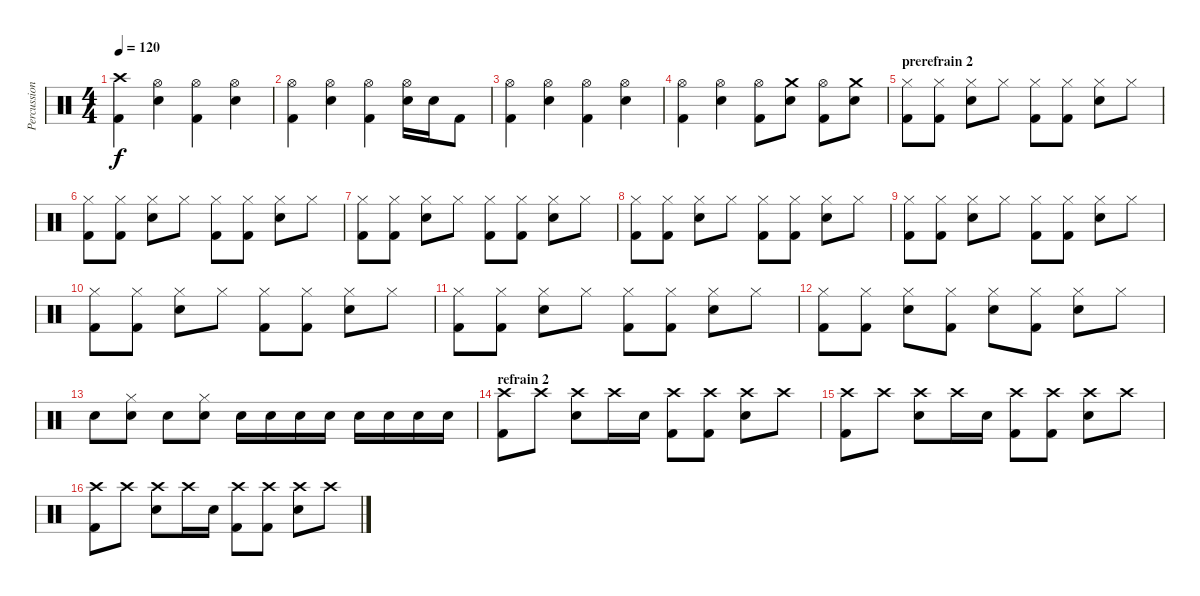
\track ("Percussions" "Percussion") {instrument percussion}
\staff {score}
\articulation defaults
\ts (4 4)
\tempo 120
\clef neutral
\ks c
("Crash high (hit)" "Kick (hit) 2").4{dy f} ("Hi-Hat (open)" "Snare (hit) 2").4 ("Hi-Hat (open)" "Kick (hit) 2").4 ("Hi-Hat (open)" "Snare (hit) 2").4 |
("Hi-Hat (open)" "Kick (hit) 2").4 ("Hi-Hat (open)" "Snare (hit) 2").4 ("Hi-Hat (open)" "Kick (hit) 2").4 ("Hi-Hat (open)" "Snare (hit) 2").16 "Snare (hit) 2".16 "Kick (hit) 2".8 |
("Hi-Hat (open)" "Kick (hit) 2").4 ("Hi-Hat (open)" "Snare (hit) 2").4 ("Hi-Hat (open)" "Kick (hit) 2").4 ("Hi-Hat (open)" "Snare (hit) 2").4 |
("Hi-Hat (open)" "Kick (hit) 2").4 ("Hi-Hat (open)" "Snare (hit) 2").4 ("Hi-Hat (open)" "Kick (hit) 2").8 ("Crash medium (hit)" "Snare (hit) 2").8 ("Hi-Hat (open)" "Kick (hit) 2").8 ("Crash medium (hit)" "Snare (hit) 2").8 |
\section ("" "prerefrain 2")
("Hi-Hat (closed)" "Kick (hit) 2").8 ("Hi-Hat (closed)" "Kick (hit) 2").8 ("Hi-Hat (closed)" "Snare (hit) 2").8 "Hi-Hat (closed)".8 ("Hi-Hat (closed)" "Kick (hit) 2").8 ("Hi-Hat (closed)" "Kick (hit) 2").8 ("Hi-Hat (closed)" "Snare (hit) 2").8 "Hi-Hat (closed)".8 |
("Hi-Hat (closed)" "Kick (hit) 2").8 ("Hi-Hat (closed)" "Kick (hit) 2").8 ("Hi-Hat (closed)" "Snare (hit) 2").8 "Hi-Hat (closed)".8 ("Hi-Hat (closed)" "Kick (hit) 2").8 ("Hi-Hat (closed)" "Kick (hit) 2").8 ("Hi-Hat (closed)" "Snare (hit) 2").8 "Hi-Hat (closed)".8 |
("Hi-Hat (closed)" "Kick (hit) 2").8 ("Hi-Hat (closed)" "Kick (hit) 2").8 ("Hi-Hat (closed)" "Snare (hit) 2").8 "Hi-Hat (closed)".8 ("Hi-Hat (closed)" "Kick (hit) 2").8 ("Hi-Hat (closed)" "Kick (hit) 2").8 ("Hi-Hat (closed)" "Snare (hit) 2").8 "Hi-Hat (closed)".8 |
("Hi-Hat (closed)" "Kick (hit) 2").8 ("Hi-Hat (closed)" "Kick (hit) 2").8 ("Hi-Hat (closed)" "Snare (hit) 2").8 "Hi-Hat (closed)".8 ("Hi-Hat (closed)" "Kick (hit) 2").8 ("Hi-Hat (closed)" "Kick (hit) 2").8 ("Hi-Hat (closed)" "Snare (hit) 2").8 "Hi-Hat (closed)".8 |
("Hi-Hat (closed)" "Kick (hit) 2").8 ("Hi-Hat (closed)" "Kick (hit) 2").8 ("Hi-Hat (closed)" "Snare (hit) 2").8 "Hi-Hat (closed)".8 ("Hi-Hat (closed)" "Kick (hit) 2").8 ("Hi-Hat (closed)" "Kick (hit) 2").8 ("Hi-Hat (closed)" "Snare (hit) 2").8 "Hi-Hat (closed)".8 |
("Hi-Hat (closed)" "Kick (hit) 2").8 ("Hi-Hat (closed)" "Kick (hit) 2").8 ("Hi-Hat (closed)" "Snare (hit) 2").8 "Hi-Hat (closed)".8 ("Hi-Hat (closed)" "Kick (hit) 2").8 ("Hi-Hat (closed)" "Kick (hit) 2").8 ("Hi-Hat (closed)" "Snare (hit) 2").8 "Hi-Hat (closed)".8 |
("Hi-Hat (closed)" "Kick (hit) 2").8 ("Hi-Hat (closed)" "Kick (hit) 2").8 ("Hi-Hat (closed)" "Snare (hit) 2").8 "Hi-Hat (closed)".8 ("Hi-Hat (closed)" "Kick (hit) 2").8 ("Hi-Hat (closed)" "Kick (hit) 2").8 ("Hi-Hat (closed)" "Snare (hit) 2").8 "Hi-Hat (closed)".8 |
("Hi-Hat (closed)" "Kick (hit) 2").8 ("Hi-Hat (closed)" "Kick (hit) 2").8 ("Hi-Hat (closed)" "Snare (hit) 2").8 ("Hi-Hat (closed)" "Kick (hit) 2").8 ("Hi-Hat (closed)" "Snare (hit) 2").8 ("Hi-Hat (closed)" "Kick (hit) 2").8 ("Hi-Hat (closed)" "Snare (hit) 2").8 "Hi-Hat (closed)".8 |
"Snare (hit) 2".8 ("Hi-Hat (closed)" "Snare (hit) 2").8 "Snare (hit) 2".8 ("Hi-Hat (closed)" "Snare (hit) 2").8 "Snare (hit) 2".16 "Snare (hit) 2".16 "Snare (hit) 2".16 "Snare (hit) 2".16 "Snare (hit) 2".16 "Snare (hit) 2".16 "Snare (hit) 2".16 "Snare (hit) 2".16 |
\section ("" "refrain 2")
("Crash high (hit)" "Kick (hit) 2").8 "Crash high (hit)".8 ("Crash high (hit)" "Snare (hit) 2").8 "Crash high (hit)".16 "Snare (hit) 2".16 ("Crash high (hit)" "Kick (hit) 2").8 ("Crash high (hit)" "Kick (hit) 2").8 ("Crash high (hit)" "Snare (hit) 2").8 "Crash high (hit)".8 |
("Crash high (hit)" "Kick (hit) 2").8 "Crash high (hit)".8 ("Crash high (hit)" "Snare (hit) 2").8 "Crash high (hit)".16 "Snare (hit) 2".16 ("Crash high (hit)" "Kick (hit) 2").8 ("Crash high (hit)" "Kick (hit) 2").8 ("Crash high (hit)" "Snare (hit) 2").8 "Crash high (hit)".8 |
("Crash high (hit)" "Kick (hit) 2").8 "Crash high (hit)".8 ("Crash high (hit)" "Snare (hit) 2").8 "Crash high (hit)".16 "Snare (hit) 2".16 ("Crash high (hit)" "Kick (hit) 2").8 ("Crash high (hit)" "Kick (hit) 2").8 ("Crash high (hit)" "Snare (hit) 2").8 "Crash high (hit)".8
